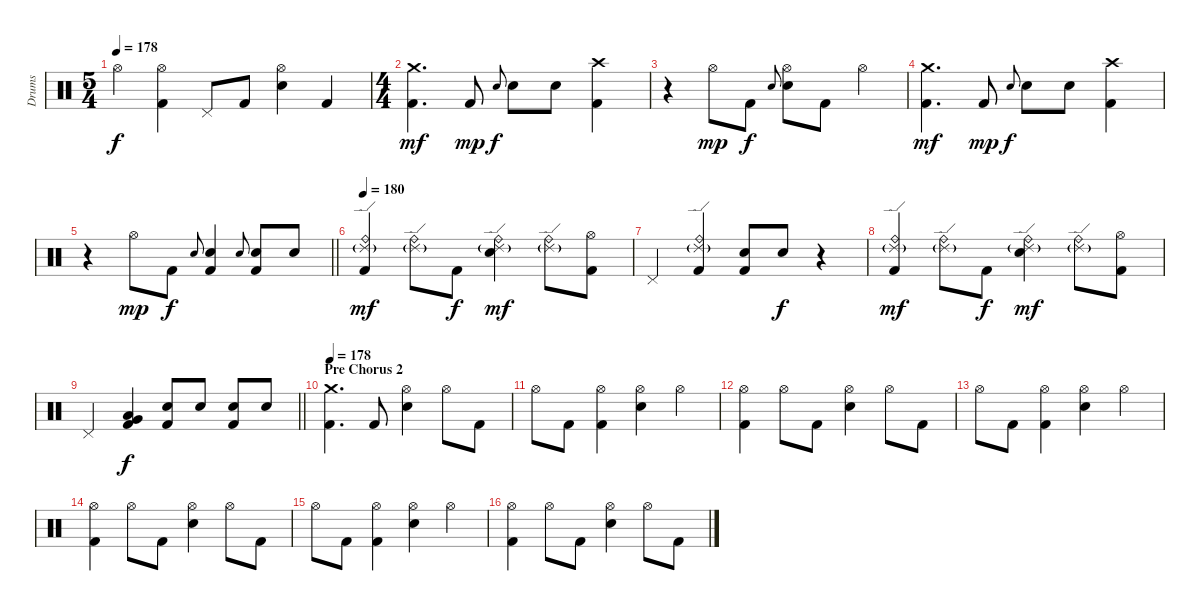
\track ("Drums" "Drums") {instrument percussion}
\staff {score}
\articulation defaults
\ts (5 4)
\tempo 178
\clef neutral
\ks c "Hi-Hat (open)".4{dy f}
("Hi-Hat (open)" "Kick (hit) 2").4 "Pedal Hi-Hat (hit)".8 "Kick (hit) 2".8 ("Hi-Hat (open)" "Electric Snare (hit)").4 "Kick (hit) 2".4 |
\ts (4 4)
("Crash medium (hit)" "Kick (hit) 2").4{d dy mf} "Kick (hit) 2".8{dy mp} "Electric Snare (hit)".8{gr onbeat dy f} "Electric Snare (hit)".8 "Electric Snare (hit)".8 ("Crash high (hit)" "Kick (hit) 2").4 |
r.4 "Hi-Hat (open)".8{dy mp} "Kick (hit) 2".8{dy f} "Electric Snare (hit)".8{gr onbeat} ("Hi-Hat (open)" "Electric Snare (hit)").8 "Kick (hit) 2".8 "Hi-Hat (open)".4 |
("Crash medium (hit)" "Kick (hit) 2").4{d dy mf} "Kick (hit) 2".8{dy mp} "Electric Snare (hit)".8{gr onbeat dy f} "Electric Snare (hit)".8 "Electric Snare (hit)".8 ("Crash high (hit)" "Kick (hit) 2").4 |
\barLineRight lightlight
r.4 "Hi-Hat (open)".8{dy mp} "Kick (hit) 2".8{dy f} "Electric Snare (hit)".8{gr onbeat} ("Electric Snare (hit)" "Kick (hit) 2").4 "Electric Snare (hit)".8{gr onbeat} ("Electric Snare (hit)" "Kick (hit) 2").8 "Electric Snare (hit)".8 |
\tempo 180
("Ride (bell)" "Ride (edge) 2"{g} "Kick (hit) 2").4{dy mf} ("Ride (bell)" "Ride (edge) 2"{g}).8 "Kick (hit) 2".8{dy f} ("Ride (bell)" "Ride (edge) 2"{g} "Electric Snare (hit)").4{dy mf} ("Ride (bell)" "Ride (edge) 2"{g}).8 ("Hi-Hat (open)" "Kick (hit) 2").8 |
"Pedal Hi-Hat (hit)".4 ("Ride (bell)" "Ride (edge) 2"{g} "Kick (hit) 2").4 ("Electric Snare (hit)" "Kick (hit) 2").8 "Electric Snare (hit)".8{dy f} r.4 |
("Ride (bell)" "Ride (edge) 2"{g} "Kick (hit) 2").4{dy mf} ("Ride (bell)" "Ride (edge) 2"{g}).8 "Kick (hit) 2".8{dy f} ("Ride (bell)" "Ride (edge) 2"{g} "Electric Snare (hit)").4{dy mf} ("Ride (bell)" "Ride (edge) 2"{g}).8 ("Hi-Hat (open)" "Kick (hit) 2").8 |
\barLineRight lightlight "Pedal Hi-Hat (hit)".4
("Low Tom (hit)" "Very Low Tom (hit)" "Kick (hit) 2").4{dy f} ("Electric Snare (hit)" "Kick (hit) 2").8 "Electric Snare (hit)".8 ("Electric Snare (hit)" "Kick (hit) 2").8 "Electric Snare (hit)".8 |
\section ("" "Pre Chorus 2")
\tempo 178
("Crash medium (hit)" "Kick (hit) 2").4{d} "Kick (hit) 2".8 ("Hi-Hat (open)" "Electric Snare (hit)").4 "Hi-Hat (open)".8 "Kick (hit) 2".8 |
"Hi-Hat (open)".8 "Kick (hit) 2".8 ("Hi-Hat (open)" "Kick (hit) 2").4 ("Hi-Hat (open)" "Electric Snare (hit)").4 "Hi-Hat (open)".4 |
("Hi-Hat (open)" "Kick (hit) 2").4 "Hi-Hat (open)".8 "Kick (hit) 2".8 ("Hi-Hat (open)" "Electric Snare (hit)").4 "Hi-Hat (open)".8 "Kick (hit) 2".8 |
"Hi-Hat (open)".8 "Kick (hit) 2".8 ("Hi-Hat (open)" "Kick (hit) 2").4 ("Hi-Hat (open)" "Electric Snare (hit)").4 "Hi-Hat (open)".4 |
("Hi-Hat (open)" "Kick (hit) 2").4 "Hi-Hat (open)".8 "Kick (hit) 2".8 ("Hi-Hat (open)" "Electric Snare (hit)").4 "Hi-Hat (open)".8 "Kick (hit) 2".8 |
"Hi-Hat (open)".8 "Kick (hit) 2".8 ("Hi-Hat (open)" "Kick (hit) 2").4 ("Hi-Hat (open)" "Electric Snare (hit)").4 "Hi-Hat (open)".4 |
("Hi-Hat (open)" "Kick (hit) 2").4 "Hi-Hat (open)".8 "Kick (hit) 2".8 ("Hi-Hat (open)" "Electric Snare (hit)").4 "Hi-Hat (open)".8 "Kick (hit) 2".8
